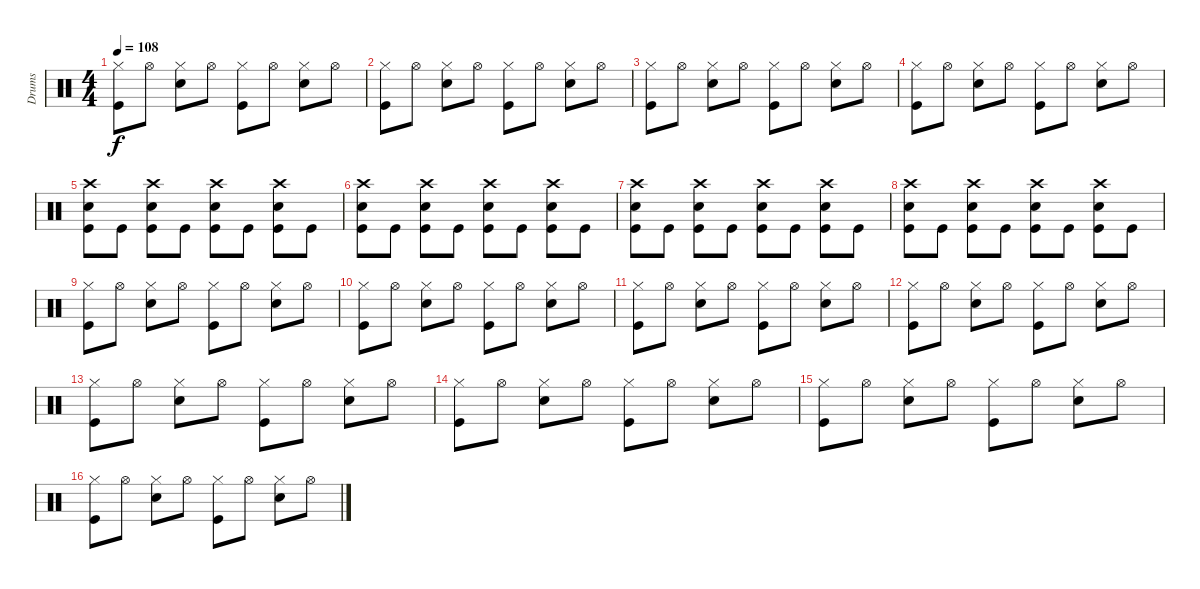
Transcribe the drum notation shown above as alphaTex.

\track ("Drums" "Drums") {instrument percussion}
\staff {score}
\articulation defaults
\ts (4 4)
\tempo 108
\clef neutral
\ks c
("Hi-Hat (closed)" "Kick (hit)").8{dy f} "Hi-Hat (open)".8 ("Hi-Hat (closed)" "Electric Snare (hit)").8 "Hi-Hat (open)".8 ("Hi-Hat (closed)" "Kick (hit)").8 "Hi-Hat (open)".8 ("Hi-Hat (closed)" "Electric Snare (hit)").8 "Hi-Hat (open)".8 |
("Hi-Hat (closed)" "Kick (hit)").8 "Hi-Hat (open)".8 ("Hi-Hat (closed)" "Electric Snare (hit)").8 "Hi-Hat (open)".8 ("Hi-Hat (closed)" "Kick (hit)").8 "Hi-Hat (open)".8 ("Hi-Hat (closed)" "Electric Snare (hit)").8 "Hi-Hat (open)".8 |
("Hi-Hat (closed)" "Kick (hit)").8 "Hi-Hat (open)".8 ("Hi-Hat (closed)" "Electric Snare (hit)").8 "Hi-Hat (open)".8 ("Hi-Hat (closed)" "Kick (hit)").8 "Hi-Hat (open)".8 ("Hi-Hat (closed)" "Electric Snare (hit)").8 "Hi-Hat (open)".8 |
("Hi-Hat (closed)" "Kick (hit)").8 "Hi-Hat (open)".8 ("Hi-Hat (closed)" "Electric Snare (hit)").8 "Hi-Hat (open)".8 ("Hi-Hat (closed)" "Kick (hit)").8 "Hi-Hat (open)".8 ("Hi-Hat (closed)" "Electric Snare (hit)").8 "Hi-Hat (open)".8 |
("Crash high (hit)" "Electric Snare (hit)" "Kick (hit)").8 "Kick (hit)".8 ("Crash high (hit)" "Electric Snare (hit)" "Kick (hit)").8 "Kick (hit)".8 ("Crash high (hit)" "Electric Snare (hit)" "Kick (hit)").8 "Kick (hit)".8 ("Crash high (hit)" "Electric Snare (hit)" "Kick (hit)").8 "Kick (hit)".8 |
("Crash high (hit)" "Electric Snare (hit)" "Kick (hit)").8 "Kick (hit)".8 ("Crash high (hit)" "Electric Snare (hit)" "Kick (hit)").8 "Kick (hit)".8 ("Crash high (hit)" "Electric Snare (hit)" "Kick (hit)").8 "Kick (hit)".8 ("Crash high (hit)" "Electric Snare (hit)" "Kick (hit)").8 "Kick (hit)".8 |
("Crash high (hit)" "Electric Snare (hit)" "Kick (hit)").8 "Kick (hit)".8 ("Crash high (hit)" "Electric Snare (hit)" "Kick (hit)").8 "Kick (hit)".8 ("Crash high (hit)" "Electric Snare (hit)" "Kick (hit)").8 "Kick (hit)".8 ("Crash high (hit)" "Electric Snare (hit)" "Kick (hit)").8 "Kick (hit)".8 |
("Crash high (hit)" "Electric Snare (hit)" "Kick (hit)").8 "Kick (hit)".8 ("Crash high (hit)" "Electric Snare (hit)" "Kick (hit)").8 "Kick (hit)".8 ("Crash high (hit)" "Electric Snare (hit)" "Kick (hit)").8 "Kick (hit)".8 ("Crash high (hit)" "Electric Snare (hit)" "Kick (hit)").8 "Kick (hit)".8 |
("Hi-Hat (closed)" "Kick (hit)").8 "Hi-Hat (open)".8 ("Hi-Hat (closed)" "Electric Snare (hit)").8 "Hi-Hat (open)".8 ("Hi-Hat (closed)" "Kick (hit)").8 "Hi-Hat (open)".8 ("Hi-Hat (closed)" "Electric Snare (hit)").8 "Hi-Hat (open)".8 |
("Hi-Hat (closed)" "Kick (hit)").8 "Hi-Hat (open)".8 ("Hi-Hat (closed)" "Electric Snare (hit)").8 "Hi-Hat (open)".8 ("Hi-Hat (closed)" "Kick (hit)").8 "Hi-Hat (open)".8 ("Hi-Hat (closed)" "Electric Snare (hit)").8 "Hi-Hat (open)".8 |
("Hi-Hat (closed)" "Kick (hit)").8 "Hi-Hat (open)".8 ("Hi-Hat (closed)" "Electric Snare (hit)").8 "Hi-Hat (open)".8 ("Hi-Hat (closed)" "Kick (hit)").8 "Hi-Hat (open)".8 ("Hi-Hat (closed)" "Electric Snare (hit)").8 "Hi-Hat (open)".8 |
("Hi-Hat (closed)" "Kick (hit)").8 "Hi-Hat (open)".8 ("Hi-Hat (closed)" "Electric Snare (hit)").8 "Hi-Hat (open)".8 ("Hi-Hat (closed)" "Kick (hit)").8 "Hi-Hat (open)".8 ("Hi-Hat (closed)" "Electric Snare (hit)").8 "Hi-Hat (open)".8 |
("Hi-Hat (closed)" "Kick (hit)").8 "Hi-Hat (open)".8 ("Hi-Hat (closed)" "Electric Snare (hit)").8 "Hi-Hat (open)".8 ("Hi-Hat (closed)" "Kick (hit)").8 "Hi-Hat (open)".8 ("Hi-Hat (closed)" "Electric Snare (hit)").8 "Hi-Hat (open)".8 |
("Hi-Hat (closed)" "Kick (hit)").8 "Hi-Hat (open)".8 ("Hi-Hat (closed)" "Electric Snare (hit)").8 "Hi-Hat (open)".8 ("Hi-Hat (closed)" "Kick (hit)").8 "Hi-Hat (open)".8 ("Hi-Hat (closed)" "Electric Snare (hit)").8 "Hi-Hat (open)".8 |
("Hi-Hat (closed)" "Kick (hit)").8 "Hi-Hat (open)".8 ("Hi-Hat (closed)" "Electric Snare (hit)").8 "Hi-Hat (open)".8 ("Hi-Hat (closed)" "Kick (hit)").8 "Hi-Hat (open)".8 ("Hi-Hat (closed)" "Electric Snare (hit)").8 "Hi-Hat (open)".8 |
("Hi-Hat (closed)" "Kick (hit)").8 "Hi-Hat (open)".8 ("Hi-Hat (closed)" "Electric Snare (hit)").8 "Hi-Hat (open)".8 ("Hi-Hat (closed)" "Kick (hit)").8 "Hi-Hat (open)".8 ("Hi-Hat (closed)" "Electric Snare (hit)").8 "Hi-Hat (open)".8
